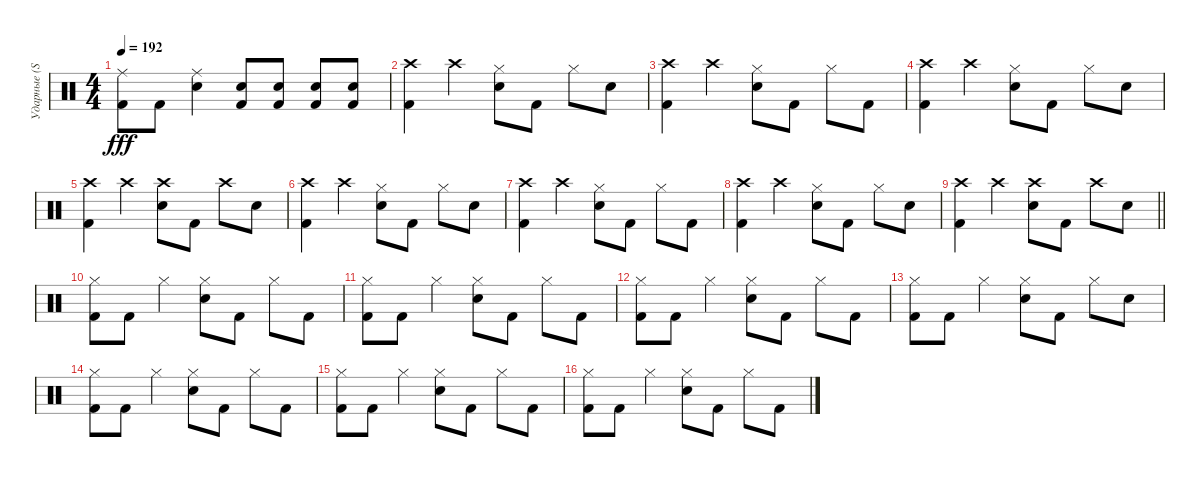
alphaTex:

\track ("Ударные (Steve Jocz)" "Ударные (S") {instrument percussion}
\staff {score}
\articulation defaults
\ts (4 4)
\tempo 192
\clef neutral
\ks c
("Ride (middle)" "Kick (hit) 2").8{dy fff} "Kick (hit) 2".8 ("Ride (middle)" "Electric Snare (hit)").4 ("Electric Snare (hit)" "Kick (hit) 2").8 ("Electric Snare (hit)" "Kick (hit) 2").8 ("Electric Snare (hit)" "Kick (hit) 2").8 ("Electric Snare (hit)" "Kick (hit) 2").8 |
("Crash high (hit)" "Kick (hit) 2").4 "Crash high (hit)".4 ("Hi-Hat (closed)" "Electric Snare (hit)").8 "Kick (hit) 2".8 "Hi-Hat (closed)".8 "Electric Snare (hit)".8 |
("Crash high (hit)" "Kick (hit) 2").4 "Crash high (hit)".4 ("Hi-Hat (closed)" "Electric Snare (hit)").8 "Kick (hit) 2".8 "Hi-Hat (closed)".8 "Kick (hit) 2".8 |
("Crash high (hit)" "Kick (hit) 2").4 "Crash high (hit)".4 ("Hi-Hat (closed)" "Electric Snare (hit)").8 "Kick (hit) 2".8 "Hi-Hat (closed)".8 "Electric Snare (hit)".8 |
("Crash high (hit)" "Kick (hit) 2").4 "Crash high (hit)".4 ("Crash high (hit)" "Electric Snare (hit)").8 "Kick (hit) 2".8 "Crash high (hit)".8 "Electric Snare (hit)".8 |
("Crash high (hit)" "Kick (hit) 2").4 "Crash high (hit)".4 ("Hi-Hat (closed)" "Electric Snare (hit)").8 "Kick (hit) 2".8 "Hi-Hat (closed)".8 "Electric Snare (hit)".8 |
("Crash high (hit)" "Kick (hit) 2").4 "Crash high (hit)".4 ("Hi-Hat (closed)" "Electric Snare (hit)").8 "Kick (hit) 2".8 "Hi-Hat (closed)".8 "Kick (hit) 2".8 |
("Crash high (hit)" "Kick (hit) 2").4 "Crash high (hit)".4 ("Hi-Hat (closed)" "Electric Snare (hit)").8 "Kick (hit) 2".8 "Hi-Hat (closed)".8 "Electric Snare (hit)".8 |
\barLineRight lightlight
("Crash high (hit)" "Kick (hit) 2").4 "Crash high (hit)".4 ("Crash high (hit)" "Electric Snare (hit)").8 "Kick (hit) 2".8 "Crash high (hit)".8 "Electric Snare (hit)".8 |
("Hi-Hat (closed)" "Kick (hit) 2").8 "Kick (hit) 2".8 "Hi-Hat (closed)".4 ("Hi-Hat (closed)" "Electric Snare (hit)").8 "Kick (hit) 2".8 "Hi-Hat (closed)".8 "Kick (hit) 2".8 |
("Hi-Hat (closed)" "Kick (hit) 2").8 "Kick (hit) 2".8 "Hi-Hat (closed)".4 ("Hi-Hat (closed)" "Electric Snare (hit)").8 "Kick (hit) 2".8 "Hi-Hat (closed)".8 "Kick (hit) 2".8 |
("Hi-Hat (closed)" "Kick (hit) 2").8 "Kick (hit) 2".8 "Hi-Hat (closed)".4 ("Hi-Hat (closed)" "Electric Snare (hit)").8 "Kick (hit) 2".8 "Hi-Hat (closed)".8 "Kick (hit) 2".8 |
("Hi-Hat (closed)" "Kick (hit) 2").8 "Kick (hit) 2".8 "Hi-Hat (closed)".4 ("Hi-Hat (closed)" "Electric Snare (hit)").8 "Kick (hit) 2".8 "Hi-Hat (closed)".8 "Electric Snare (hit)".8 |
("Hi-Hat (closed)" "Kick (hit) 2").8 "Kick (hit) 2".8 "Hi-Hat (closed)".4 ("Hi-Hat (closed)" "Electric Snare (hit)").8 "Kick (hit) 2".8 "Hi-Hat (closed)".8 "Kick (hit) 2".8 |
("Hi-Hat (closed)" "Kick (hit) 2").8 "Kick (hit) 2".8 "Hi-Hat (closed)".4 ("Hi-Hat (closed)" "Electric Snare (hit)").8 "Kick (hit) 2".8 "Hi-Hat (closed)".8 "Kick (hit) 2".8 |
("Hi-Hat (closed)" "Kick (hit) 2").8 "Kick (hit) 2".8 "Hi-Hat (closed)".4 ("Hi-Hat (closed)" "Electric Snare (hit)").8 "Kick (hit) 2".8 "Hi-Hat (closed)".8 "Kick (hit) 2".8
